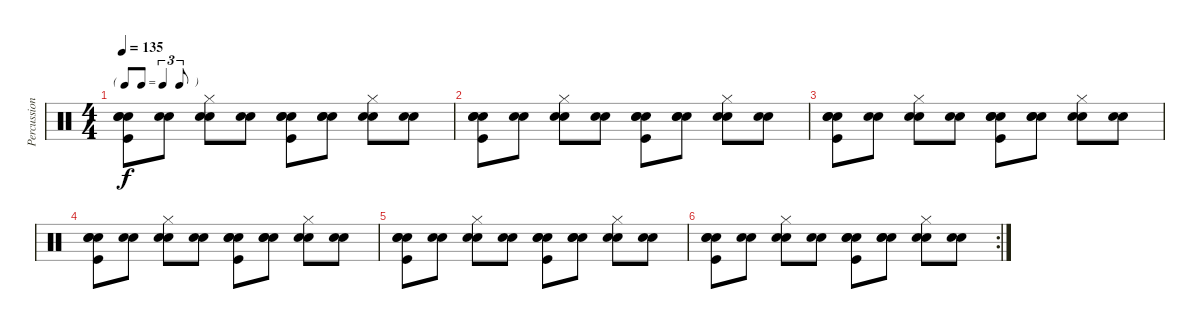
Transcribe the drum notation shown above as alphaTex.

\track ("Percussions" "Percussion") {instrument percussion}
\staff {score}
\articulation defaults
\ts (4 4)
\tf triplet8th
\tempo 135
\clef neutral
\ks c
("Snare (hit)" "Kick (hit)" "Snare (hit) 2" "Electric Snare (hit)").8{dy f} ("Snare (hit)" "Electric Snare (hit)").8 ("Snare (hit)" "Snare (hit) 2" "Hi-Hat (closed)").8 ("Snare (hit)" "Snare (hit) 2").8 ("Snare (hit)" "Kick (hit)" "Snare (hit) 2" "Electric Snare (hit)").8 ("Snare (hit)" "Snare (hit) 2" "Electric Snare (hit)").8 ("Snare (hit)" "Snare (hit) 2" "Hi-Hat (closed)").8 ("Snare (hit)" "Snare (hit) 2").8 |
("Snare (hit)" "Kick (hit)" "Snare (hit) 2" "Electric Snare (hit)").8 ("Snare (hit)" "Electric Snare (hit)").8 ("Snare (hit)" "Snare (hit) 2" "Hi-Hat (closed)").8 ("Snare (hit)" "Snare (hit) 2").8 ("Snare (hit)" "Kick (hit)" "Snare (hit) 2" "Electric Snare (hit)").8 ("Snare (hit)" "Snare (hit) 2" "Electric Snare (hit)").8 ("Snare (hit)" "Snare (hit) 2" "Hi-Hat (closed)").8 ("Snare (hit)" "Snare (hit) 2").8 |
("Snare (hit)" "Kick (hit)" "Snare (hit) 2" "Electric Snare (hit)").8 ("Snare (hit)" "Electric Snare (hit)").8 ("Snare (hit)" "Snare (hit) 2" "Hi-Hat (closed)").8 ("Snare (hit)" "Snare (hit) 2").8 ("Snare (hit)" "Kick (hit)" "Snare (hit) 2" "Electric Snare (hit)").8 ("Snare (hit)" "Snare (hit) 2" "Electric Snare (hit)").8 ("Snare (hit)" "Snare (hit) 2" "Hi-Hat (closed)").8 ("Snare (hit)" "Snare (hit) 2").8 |
("Snare (hit)" "Kick (hit)" "Snare (hit) 2" "Electric Snare (hit)").8 ("Snare (hit)" "Electric Snare (hit)").8 ("Snare (hit)" "Snare (hit) 2" "Hi-Hat (closed)").8 ("Snare (hit)" "Snare (hit) 2").8 ("Snare (hit)" "Kick (hit)" "Snare (hit) 2" "Electric Snare (hit)").8 ("Snare (hit)" "Snare (hit) 2" "Electric Snare (hit)").8 ("Snare (hit)" "Snare (hit) 2" "Hi-Hat (closed)").8 ("Snare (hit)" "Snare (hit) 2").8 |
("Snare (hit)" "Kick (hit)" "Snare (hit) 2" "Electric Snare (hit)").8 ("Snare (hit)" "Electric Snare (hit)").8 ("Snare (hit)" "Snare (hit) 2" "Hi-Hat (closed)").8 ("Snare (hit)" "Snare (hit) 2").8 ("Snare (hit)" "Kick (hit)" "Snare (hit) 2" "Electric Snare (hit)").8 ("Snare (hit)" "Snare (hit) 2" "Electric Snare (hit)").8 ("Snare (hit)" "Snare (hit) 2" "Hi-Hat (closed)").8 ("Snare (hit)" "Snare (hit) 2").8 |
\rc 2
("Snare (hit)" "Kick (hit)" "Snare (hit) 2" "Electric Snare (hit)").8 ("Snare (hit)" "Electric Snare (hit)").8 ("Snare (hit)" "Snare (hit) 2" "Hi-Hat (closed)").8 ("Snare (hit)" "Snare (hit) 2").8 ("Snare (hit)" "Kick (hit)" "Snare (hit) 2" "Electric Snare (hit)").8 ("Snare (hit)" "Snare (hit) 2" "Electric Snare (hit)").8 ("Snare (hit)" "Snare (hit) 2" "Hi-Hat (closed)").8 ("Snare (hit)" "Snare (hit) 2").8
